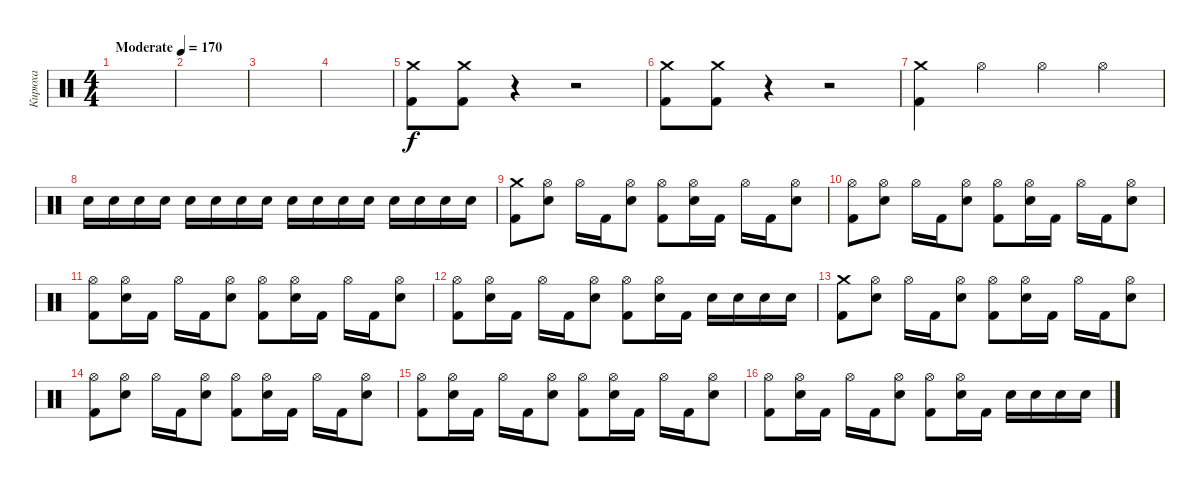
\track ("Кирюха" "Кирюха") {instrument percussion}
\staff {score}
\articulation defaults
\ts (4 4)
\tempo (170 "Moderate")
\clef neutral
\ks c
|
|
|
|
("Kick (hit) 2" "Crash medium (hit)").8 ("Kick (hit) 2" "Crash medium (hit)").8 r.4 r.2 |
("Kick (hit) 2" "Crash medium (hit)").8 ("Kick (hit) 2" "Crash medium (hit)").8 r.4 r.2 |
("Crash medium (hit)" "Kick (hit) 2").4 "Hi-Hat (open)".4 "Hi-Hat (open)".4 "Hi-Hat (open)".4 |
"Electric Snare (hit)".16 "Electric Snare (hit)".16 "Electric Snare (hit)".16 "Electric Snare (hit)".16 "Electric Snare (hit)".16 "Electric Snare (hit)".16 "Electric Snare (hit)".16 "Electric Snare (hit)".16 "Electric Snare (hit)".16 "Electric Snare (hit)".16 "Electric Snare (hit)".16 "Electric Snare (hit)".16 "Electric Snare (hit)".16 "Electric Snare (hit)".16 "Electric Snare (hit)".16 "Electric Snare (hit)".16 |
("Kick (hit) 2" "Crash medium (hit)").8 ("Electric Snare (hit)" "Hi-Hat (open)").8 "Hi-Hat (open)".16 "Kick (hit) 2".16 ("Electric Snare (hit)" "Hi-Hat (open)").8 ("Kick (hit) 2" "Hi-Hat (open)").8 ("Electric Snare (hit)" "Hi-Hat (open)").16 "Kick (hit) 2".16 "Hi-Hat (open)".16 "Kick (hit) 2".16 ("Electric Snare (hit)" "Hi-Hat (open)").8 |
("Kick (hit) 2" "Hi-Hat (open)").8 ("Electric Snare (hit)" "Hi-Hat (open)").8 "Hi-Hat (open)".16 "Kick (hit) 2".16 ("Electric Snare (hit)" "Hi-Hat (open)").8 ("Kick (hit) 2" "Hi-Hat (open)").8 ("Electric Snare (hit)" "Hi-Hat (open)").16 "Kick (hit) 2".16 "Hi-Hat (open)".16 "Kick (hit) 2".16 ("Electric Snare (hit)" "Hi-Hat (open)").8 |
("Kick (hit) 2" "Hi-Hat (open)").8 ("Electric Snare (hit)" "Hi-Hat (open)").16 "Kick (hit) 2".16 "Hi-Hat (open)".16 "Kick (hit) 2".16 ("Electric Snare (hit)" "Hi-Hat (open)").8 ("Kick (hit) 2" "Hi-Hat (open)").8 ("Electric Snare (hit)" "Hi-Hat (open)").16 "Kick (hit) 2".16 "Hi-Hat (open)".16 "Kick (hit) 2".16 ("Electric Snare (hit)" "Hi-Hat (open)").8 |
("Kick (hit) 2" "Hi-Hat (open)").8 ("Electric Snare (hit)" "Hi-Hat (open)").16 "Kick (hit) 2".16 "Hi-Hat (open)".16 "Kick (hit) 2".16 ("Electric Snare (hit)" "Hi-Hat (open)").8 ("Kick (hit) 2" "Hi-Hat (open)").8 ("Electric Snare (hit)" "Hi-Hat (open)").16 "Kick (hit) 2".16 "Electric Snare (hit)".16 "Electric Snare (hit)".16 "Electric Snare (hit)".16 "Electric Snare (hit)".16 |
("Kick (hit) 2" "Crash medium (hit)").8 ("Electric Snare (hit)" "Hi-Hat (open)").8 "Hi-Hat (open)".16 "Kick (hit) 2".16 ("Electric Snare (hit)" "Hi-Hat (open)").8 ("Kick (hit) 2" "Hi-Hat (open)").8 ("Electric Snare (hit)" "Hi-Hat (open)").16 "Kick (hit) 2".16 "Hi-Hat (open)".16 "Kick (hit) 2".16 ("Electric Snare (hit)" "Hi-Hat (open)").8 |
("Kick (hit) 2" "Hi-Hat (open)").8 ("Electric Snare (hit)" "Hi-Hat (open)").8 "Hi-Hat (open)".16 "Kick (hit) 2".16 ("Electric Snare (hit)" "Hi-Hat (open)").8 ("Kick (hit) 2" "Hi-Hat (open)").8 ("Electric Snare (hit)" "Hi-Hat (open)").16 "Kick (hit) 2".16 "Hi-Hat (open)".16 "Kick (hit) 2".16 ("Electric Snare (hit)" "Hi-Hat (open)").8 |
("Kick (hit) 2" "Hi-Hat (open)").8 ("Electric Snare (hit)" "Hi-Hat (open)").16 "Kick (hit) 2".16 "Hi-Hat (open)".16 "Kick (hit) 2".16 ("Electric Snare (hit)" "Hi-Hat (open)").8 ("Kick (hit) 2" "Hi-Hat (open)").8 ("Electric Snare (hit)" "Hi-Hat (open)").16 "Kick (hit) 2".16 "Hi-Hat (open)".16 "Kick (hit) 2".16 ("Electric Snare (hit)" "Hi-Hat (open)").8 |
("Kick (hit) 2" "Hi-Hat (open)").8 ("Electric Snare (hit)" "Hi-Hat (open)").16 "Kick (hit) 2".16 "Hi-Hat (open)".16 "Kick (hit) 2".16 ("Electric Snare (hit)" "Hi-Hat (open)").8 ("Kick (hit) 2" "Hi-Hat (open)").8 ("Electric Snare (hit)" "Hi-Hat (open)").16 "Kick (hit) 2".16 "Electric Snare (hit)".16 "Electric Snare (hit)".16 "Electric Snare (hit)".16 "Electric Snare (hit)".16
